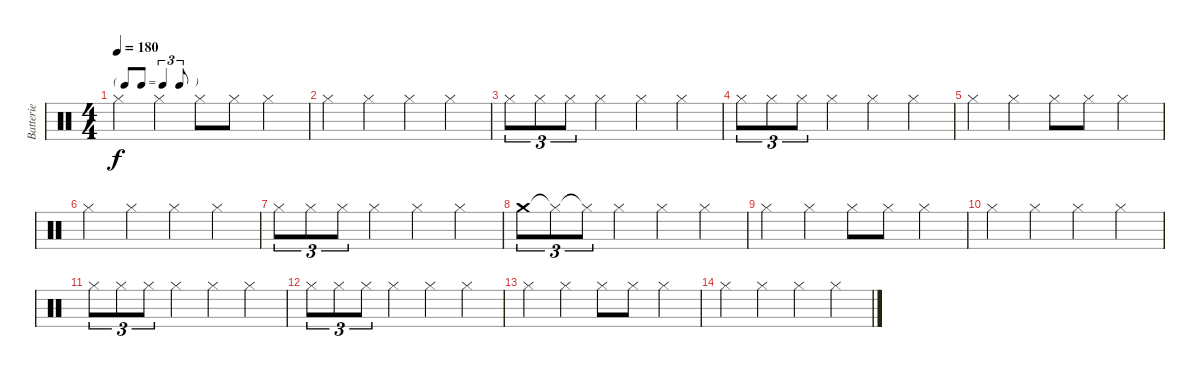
\track ("Batterie" "Batterie") {instrument percussion}
\staff {score}
\articulation defaults
\ts (4 4)
\tf triplet8th
\tempo 180
\clef neutral
\ks c "Hi-Hat (closed)".4{dy f} "Hi-Hat (closed)".4 "Hi-Hat (closed)".8 "Hi-Hat (closed)".8 "Hi-Hat (closed)".4
|
"Hi-Hat (closed)".4 "Hi-Hat (closed)".4 "Hi-Hat (closed)".4 "Hi-Hat (closed)".4 |
"Hi-Hat (closed)".8{tu (3 2)} "Hi-Hat (closed)".8{tu (3 2)} "Hi-Hat (closed)".8{tu (3 2)} "Hi-Hat (closed)".4 "Hi-Hat (closed)".4 "Hi-Hat (closed)".4 |
"Hi-Hat (closed)".8{tu (3 2)} "Hi-Hat (closed)".8{tu (3 2)} "Hi-Hat (closed)".8{tu (3 2)} "Hi-Hat (closed)".4 "Hi-Hat (closed)".4 "Hi-Hat (closed)".4 |
"Hi-Hat (closed)".4 "Hi-Hat (closed)".4 "Hi-Hat (closed)".8 "Hi-Hat (closed)".8 "Hi-Hat (closed)".4 |
"Hi-Hat (closed)".4 "Hi-Hat (closed)".4 "Hi-Hat (closed)".4 "Hi-Hat (closed)".4 |
"Hi-Hat (closed)".8{tu (3 2)} "Hi-Hat (closed)".8{tu (3 2)} "Hi-Hat (closed)".8{tu (3 2)} "Hi-Hat (closed)".4 "Hi-Hat (closed)".4 "Hi-Hat (closed)".4 |
"Crash medium (hit)".8{tu (3 2)} "Hi-Hat (closed)"{t}.8{tu (3 2)} "Hi-Hat (closed)"{t}.8{tu (3 2)} "Hi-Hat (closed)".4 "Hi-Hat (closed)".4 "Hi-Hat (closed)".4 |
"Hi-Hat (closed)".4 "Hi-Hat (closed)".4 "Hi-Hat (closed)".8 "Hi-Hat (closed)".8 "Hi-Hat (closed)".4 |
"Hi-Hat (closed)".4 "Hi-Hat (closed)".4 "Hi-Hat (closed)".4 "Hi-Hat (closed)".4 |
"Hi-Hat (closed)".8{tu (3 2)} "Hi-Hat (closed)".8{tu (3 2)} "Hi-Hat (closed)".8{tu (3 2)} "Hi-Hat (closed)".4 "Hi-Hat (closed)".4 "Hi-Hat (closed)".4 |
"Hi-Hat (closed)".8{tu (3 2)} "Hi-Hat (closed)".8{tu (3 2)} "Hi-Hat (closed)".8{tu (3 2)} "Hi-Hat (closed)".4 "Hi-Hat (closed)".4 "Hi-Hat (closed)".4 |
"Hi-Hat (closed)".4 "Hi-Hat (closed)".4 "Hi-Hat (closed)".8 "Hi-Hat (closed)".8 "Hi-Hat (closed)".4 |
"Hi-Hat (closed)".4 "Hi-Hat (closed)".4 "Hi-Hat (closed)".4 "Hi-Hat (closed)".4
